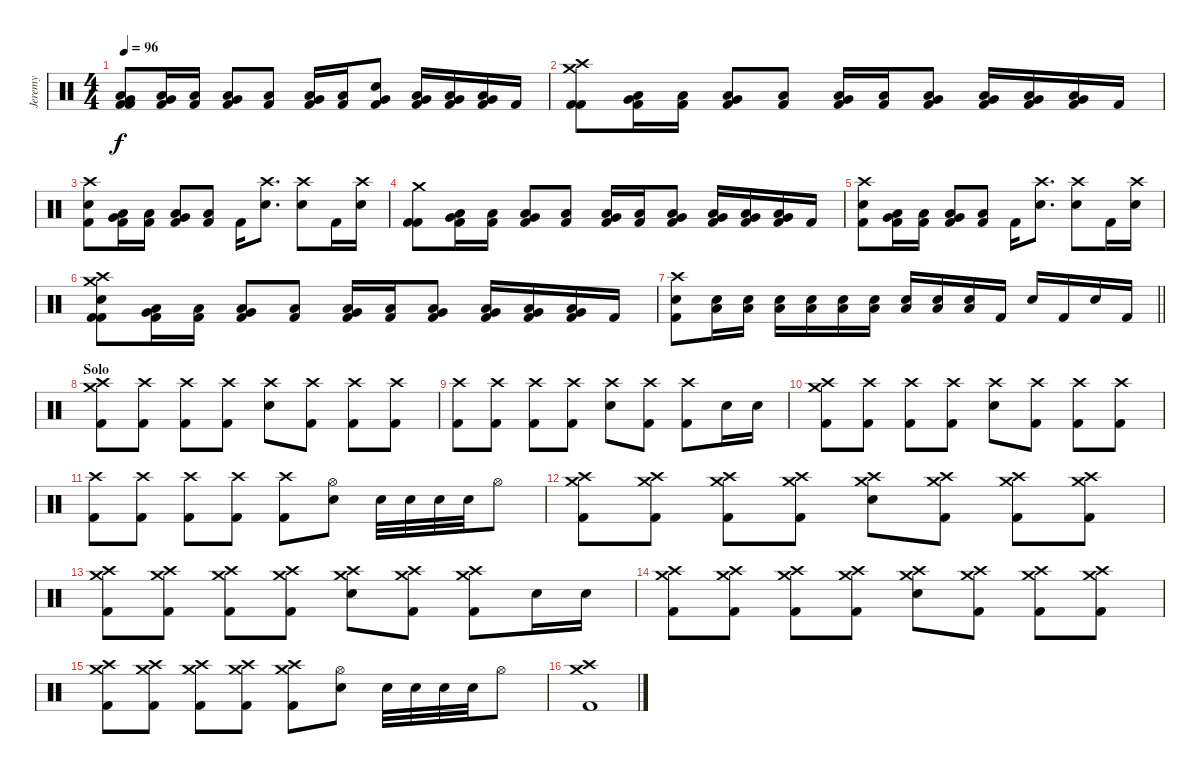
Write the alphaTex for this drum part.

\track ("Jeremy" "Jeremy") {instrument percussion}
\staff {score}
\articulation defaults
\ts (4 4)
\tempo 96
\clef neutral
\ks c
("Low Floor Tom (hit)" "Very Low Tom (hit)" "Kick (hit) 2" "Kick (hit) 2").8{dy f} ("Very Low Tom (hit)" "Low Floor Tom (hit)" "Kick (hit) 2").16 ("Low Tom (hit)" "Kick (hit) 2").16 ("Very Low Tom (hit)" "Low Floor Tom (hit)" "Kick (hit) 2").8 ("Low Tom (hit)" "Kick (hit) 2").8 ("Very Low Tom (hit)" "Low Floor Tom (hit)" "Kick (hit) 2").16 ("Low Tom (hit)" "Kick (hit) 2").16 ("Very Low Tom (hit)" "Snare (hit)" "Kick (hit) 2").8 ("Very Low Tom (hit)" "Low Floor Tom (hit)" "Kick (hit) 2").16 ("Very Low Tom (hit)" "Low Floor Tom (hit)" "Kick (hit) 2").16 ("Very Low Tom (hit)" "Low Floor Tom (hit)" "Kick (hit) 2").16 "Kick (hit) 2".16 |
("Crash medium (hit)" "Crash high (hit)" "Kick (hit) 2" "Kick (hit) 2").8 ("Very Low Tom (hit)" "Low Floor Tom (hit)" "Kick (hit) 2").16 ("Low Tom (hit)" "Kick (hit) 2").16 ("Very Low Tom (hit)" "Low Floor Tom (hit)" "Kick (hit) 2").8 ("Low Tom (hit)" "Kick (hit) 2").8 ("Very Low Tom (hit)" "Low Floor Tom (hit)" "Kick (hit) 2").16 ("Low Tom (hit)" "Kick (hit) 2").16 ("Very Low Tom (hit)" "Low Floor Tom (hit)" "Kick (hit) 2").8 ("Very Low Tom (hit)" "Low Floor Tom (hit)" "Kick (hit) 2").16 ("Very Low Tom (hit)" "Low Floor Tom (hit)" "Kick (hit) 2").16 ("Very Low Tom (hit)" "Low Floor Tom (hit)" "Kick (hit) 2").16 "Kick (hit) 2".16 |
("Crash high (hit)" "Snare (hit) 2" "Kick (hit) 2").8 ("Very Low Tom (hit)" "Low Floor Tom (hit)" "Kick (hit) 2").16 ("Low Tom (hit)" "Kick (hit) 2").16 ("Very Low Tom (hit)" "Low Floor Tom (hit)" "Kick (hit) 2").8 ("Low Tom (hit)" "Kick (hit) 2").8 "Kick (hit) 2".16 ("Crash high (hit)" "Snare (hit) 2").8{d} ("Crash high (hit)" "Snare (hit) 2").8 "Kick (hit) 2".16 ("Crash high (hit)" "Snare (hit) 2").16 |
("Crash medium (hit)" "Kick (hit) 2" "Kick (hit) 2").8 ("Very Low Tom (hit)" "Low Floor Tom (hit)" "Kick (hit) 2").16 ("Low Tom (hit)" "Kick (hit) 2").16 ("Very Low Tom (hit)" "Low Floor Tom (hit)" "Kick (hit) 2").8 ("Low Tom (hit)" "Kick (hit) 2").8 ("Very Low Tom (hit)" "Low Floor Tom (hit)" "Kick (hit) 2").16 ("Low Tom (hit)" "Kick (hit) 2").16 ("Very Low Tom (hit)" "Low Floor Tom (hit)" "Kick (hit) 2").8 ("Very Low Tom (hit)" "Low Floor Tom (hit)" "Kick (hit) 2").16 ("Very Low Tom (hit)" "Low Floor Tom (hit)" "Kick (hit) 2").16 ("Very Low Tom (hit)" "Low Floor Tom (hit)" "Kick (hit) 2").16 "Kick (hit) 2".16 |
("Crash high (hit)" "Snare (hit) 2" "Kick (hit) 2").8 ("Very Low Tom (hit)" "Low Floor Tom (hit)" "Kick (hit) 2").16 ("Low Tom (hit)" "Kick (hit) 2").16 ("Very Low Tom (hit)" "Low Floor Tom (hit)" "Kick (hit) 2").8 ("Low Tom (hit)" "Kick (hit) 2").8 "Kick (hit) 2".16 ("Crash high (hit)" "Snare (hit) 2").8{d} ("Crash high (hit)" "Snare (hit) 2").8 "Kick (hit) 2".16 ("Crash high (hit)" "Snare (hit) 2").16 |
("Crash medium (hit)" "Crash high (hit)" "Snare (hit) 2" "Kick (hit) 2" "Kick (hit) 2").8 ("Very Low Tom (hit)" "Low Floor Tom (hit)" "Kick (hit) 2").16 ("Low Tom (hit)" "Kick (hit) 2").16 ("Very Low Tom (hit)" "Low Floor Tom (hit)" "Kick (hit) 2").8 ("Low Tom (hit)" "Kick (hit) 2").8 ("Very Low Tom (hit)" "Low Floor Tom (hit)" "Kick (hit) 2").16 ("Low Tom (hit)" "Kick (hit) 2").16 ("Very Low Tom (hit)" "Low Floor Tom (hit)" "Kick (hit) 2").8 ("Very Low Tom (hit)" "Low Floor Tom (hit)" "Kick (hit) 2").16 ("Very Low Tom (hit)" "Low Floor Tom (hit)" "Kick (hit) 2").16 ("Very Low Tom (hit)" "Low Floor Tom (hit)" "Kick (hit) 2").16 "Kick (hit) 2".16 |
\barLineRight lightlight
("Crash high (hit)" "Snare (hit) 2" "Kick (hit) 2").8 ("Snare (hit) 2" "Low Floor Tom (hit)").16 ("Snare (hit) 2" "Low Floor Tom (hit)").16 ("Snare (hit) 2" "Low Floor Tom (hit)").16 ("Snare (hit) 2" "Low Floor Tom (hit)").16 ("Snare (hit) 2" "Low Floor Tom (hit)").16 ("Snare (hit) 2" "Low Floor Tom (hit)").16 ("Snare (hit) 2" "Low Floor Tom (hit)").16 ("Snare (hit) 2" "Low Floor Tom (hit)").16 ("Snare (hit) 2" "Low Floor Tom (hit)").16 "Kick (hit) 2".16 "Snare (hit) 2".16 "Kick (hit) 2".16 "Snare (hit) 2".16 "Kick (hit) 2".16 |
\section ("" "Solo")
("Crash medium (hit)" "Crash high (hit)" "Kick (hit) 2").8 ("Crash high (hit)" "Kick (hit) 2").8 ("Crash high (hit)" "Kick (hit) 2").8 ("Crash high (hit)" "Kick (hit) 2").8 ("Crash high (hit)" "Snare (hit) 2").8 ("Crash high (hit)" "Kick (hit) 2").8 ("Crash high (hit)" "Kick (hit) 2").8 ("Crash high (hit)" "Kick (hit) 2").8 |
("Crash high (hit)" "Kick (hit) 2").8 ("Crash high (hit)" "Kick (hit) 2").8 ("Crash high (hit)" "Kick (hit) 2").8 ("Crash high (hit)" "Kick (hit) 2").8 ("Crash high (hit)" "Snare (hit) 2").8 ("Crash high (hit)" "Kick (hit) 2").8 ("Crash high (hit)" "Kick (hit) 2").8 "Snare (hit) 2".16 "Snare (hit) 2".16 |
("Crash high (hit)" "Crash medium (hit)" "Kick (hit) 2").8 ("Crash high (hit)" "Kick (hit) 2").8 ("Crash high (hit)" "Kick (hit) 2").8 ("Crash high (hit)" "Kick (hit) 2").8 ("Crash high (hit)" "Snare (hit) 2").8 ("Crash high (hit)" "Kick (hit) 2").8 ("Crash high (hit)" "Kick (hit) 2").8 ("Crash high (hit)" "Kick (hit) 2").8 |
("Crash high (hit)" "Kick (hit) 2").8 ("Crash high (hit)" "Kick (hit) 2").8 ("Crash high (hit)" "Kick (hit) 2").8 ("Crash high (hit)" "Kick (hit) 2").8 ("Crash high (hit)" "Kick (hit) 2").8 ("Hi-Hat (open)" "Snare (hit) 2").8 "Snare (hit) 2".32 "Snare (hit) 2".32 "Snare (hit) 2".32 "Snare (hit) 2".32 "Hi-Hat (open)".8 |
("Crash medium (hit)" "Crash high (hit)" "Kick (hit) 2").8 ("Crash medium (hit)" "Crash high (hit)" "Kick (hit) 2").8 ("Crash medium (hit)" "Crash high (hit)" "Kick (hit) 2").8 ("Crash medium (hit)" "Crash high (hit)" "Kick (hit) 2").8 ("Crash medium (hit)" "Crash high (hit)" "Snare (hit) 2").8 ("Crash medium (hit)" "Crash high (hit)" "Kick (hit) 2").8 ("Crash medium (hit)" "Crash high (hit)" "Kick (hit) 2").8 ("Crash medium (hit)" "Crash high (hit)" "Kick (hit) 2").8 |
("Crash medium (hit)" "Crash high (hit)" "Kick (hit) 2").8 ("Crash medium (hit)" "Crash high (hit)" "Kick (hit) 2").8 ("Crash medium (hit)" "Crash high (hit)" "Kick (hit) 2").8 ("Crash medium (hit)" "Crash high (hit)" "Kick (hit) 2").8 ("Crash medium (hit)" "Crash high (hit)" "Snare (hit) 2").8 ("Crash medium (hit)" "Crash high (hit)" "Kick (hit) 2").8 ("Crash medium (hit)" "Crash high (hit)" "Kick (hit) 2").8 "Snare (hit) 2".16 "Snare (hit) 2".16 |
("Crash high (hit)" "Crash medium (hit)" "Kick (hit) 2").8 ("Crash medium (hit)" "Crash high (hit)" "Kick (hit) 2").8 ("Crash medium (hit)" "Crash high (hit)" "Kick (hit) 2").8 ("Crash medium (hit)" "Crash high (hit)" "Kick (hit) 2").8 ("Crash medium (hit)" "Crash high (hit)" "Snare (hit) 2").8 ("Crash medium (hit)" "Crash high (hit)" "Kick (hit) 2").8 ("Crash medium (hit)" "Crash high (hit)" "Kick (hit) 2").8 ("Crash medium (hit)" "Crash high (hit)" "Kick (hit) 2").8 |
("Crash medium (hit)" "Crash high (hit)" "Kick (hit) 2").8 ("Crash medium (hit)" "Crash high (hit)" "Kick (hit) 2").8 ("Crash medium (hit)" "Crash high (hit)" "Kick (hit) 2").8 ("Crash medium (hit)" "Crash high (hit)" "Kick (hit) 2").8 ("Crash medium (hit)" "Crash high (hit)" "Kick (hit) 2").8 ("Hi-Hat (open)" "Snare (hit) 2").8 "Snare (hit) 2".32 "Snare (hit) 2".32 "Snare (hit) 2".32 "Snare (hit) 2".32 "Hi-Hat (open)".8 |
("Crash high (hit)" "Crash medium (hit)" "Kick (hit) 2").1
